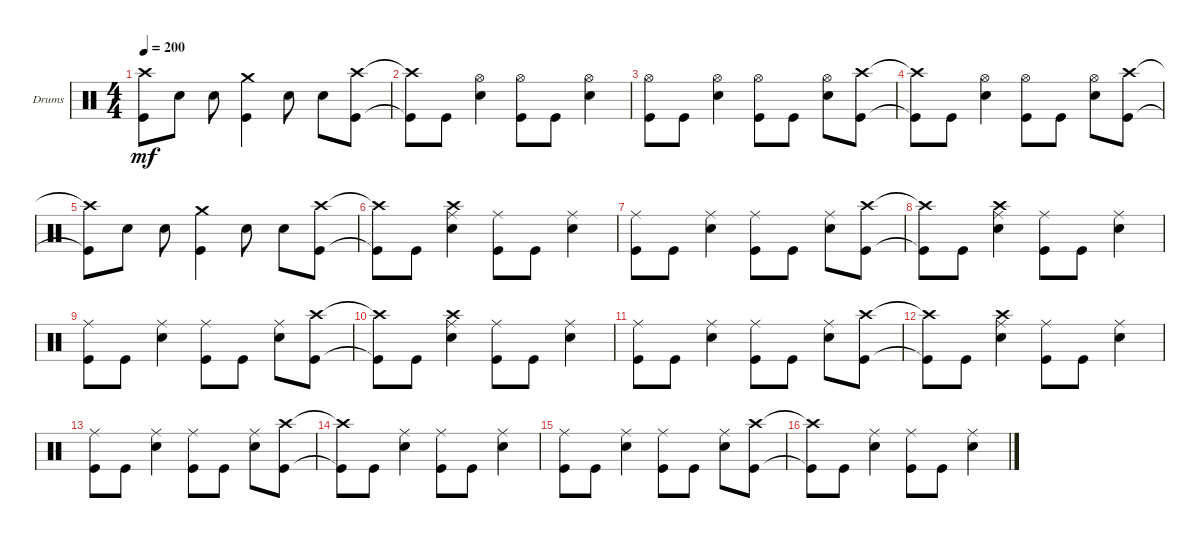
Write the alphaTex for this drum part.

\bracketExtendMode groupsimilarinstruments
\firstSystemTrackNameOrientation horizontal
\otherSystemsTrackNameOrientation horizontal
\track ("Drums" "Drums") {instrument percussion}
\staff {score}
\articulation defaults
\ts (4 4)
\tempo 200
\clef neutral
\ks c
("Kick (hit)"{t} "Crash high (hit)"{t}).8{dy mf} "Snare (hit) 2".8 "Snare (hit) 2".8 ("Kick (hit)" "Crash medium (hit)").4 "Snare (hit) 2".8 "Snare (hit) 2".8 ("Kick (hit)" "Crash high (hit)").8 |
("Kick (hit)"{t} "Crash high (hit)"{t}).8 "Kick (hit)".8 ("Snare (hit) 2" "Hi-Hat (open)").4 ("Kick (hit)" "Hi-Hat (open)").8 "Kick (hit)".8 ("Snare (hit) 2" "Hi-Hat (open)").4 |
("Kick (hit)" "Hi-Hat (open)").8 "Kick (hit)".8 ("Snare (hit) 2" "Hi-Hat (open)").4 ("Kick (hit)" "Hi-Hat (open)").8 "Kick (hit)".8 ("Snare (hit) 2" "Hi-Hat (open)").8 ("Kick (hit)" "Crash high (hit)").8 |
("Kick (hit)"{t} "Crash high (hit)"{t}).8 "Kick (hit)".8 ("Snare (hit) 2" "Hi-Hat (open)").4 ("Kick (hit)" "Hi-Hat (open)").8 "Kick (hit)".8 ("Snare (hit) 2" "Hi-Hat (open)").8 ("Kick (hit)" "Crash high (hit)").8 |
("Kick (hit)"{t} "Crash high (hit)"{t}).8 "Snare (hit) 2".8 "Snare (hit) 2".8 ("Kick (hit)" "Crash medium (hit)").4 "Snare (hit) 2".8 "Snare (hit) 2".8 ("Kick (hit)" "Crash high (hit)").8 |
("Kick (hit)"{t} "Crash high (hit)"{t}).8 "Kick (hit)".8 ("Snare (hit) 2" "Ride (middle)" "Crash high (hit)").4 ("Kick (hit)" "Ride (middle)").8 "Kick (hit)".8 ("Snare (hit) 2" "Ride (middle)").4 |
("Kick (hit)" "Ride (middle)").8 "Kick (hit)".8 ("Snare (hit) 2" "Ride (middle)").4 ("Kick (hit)" "Ride (middle)").8 "Kick (hit)".8 ("Snare (hit) 2" "Ride (middle)").8 ("Kick (hit)" "Crash high (hit)").8 |
("Kick (hit)"{t} "Crash high (hit)"{t}).8 "Kick (hit)".8 ("Snare (hit) 2" "Ride (middle)" "Crash high (hit)").4 ("Kick (hit)" "Ride (middle)").8 "Kick (hit)".8 ("Snare (hit) 2" "Ride (middle)").4 |
("Kick (hit)" "Ride (middle)").8 "Kick (hit)".8 ("Snare (hit) 2" "Ride (middle)").4 ("Kick (hit)" "Ride (middle)").8 "Kick (hit)".8 ("Snare (hit) 2" "Ride (middle)").8 ("Kick (hit)" "Crash high (hit)").8 |
("Kick (hit)"{t} "Crash high (hit)"{t}).8 "Kick (hit)".8 ("Snare (hit) 2" "Ride (middle)" "Crash high (hit)").4 ("Kick (hit)" "Ride (middle)").8 "Kick (hit)".8 ("Snare (hit) 2" "Ride (middle)").4 |
("Kick (hit)" "Ride (middle)").8 "Kick (hit)".8 ("Snare (hit) 2" "Ride (middle)").4 ("Kick (hit)" "Ride (middle)").8 "Kick (hit)".8 ("Snare (hit) 2" "Ride (middle)").8 ("Kick (hit)" "Crash high (hit)").8 |
("Kick (hit)"{t} "Crash high (hit)"{t}).8 "Kick (hit)".8 ("Snare (hit) 2" "Ride (middle)" "Crash high (hit)").4 ("Kick (hit)" "Ride (middle)").8 "Kick (hit)".8 ("Snare (hit) 2" "Ride (middle)").4 |
("Kick (hit)" "Ride (middle)").8 "Kick (hit)".8 ("Snare (hit) 2" "Ride (middle)").4 ("Kick (hit)" "Ride (middle)").8 "Kick (hit)".8 ("Snare (hit) 2" "Ride (middle)").8 ("Kick (hit)" "Crash high (hit)").8 |
("Kick (hit)"{t} "Crash high (hit)"{t}).8 "Kick (hit)".8 ("Snare (hit) 2" "Ride (middle)").4 ("Kick (hit)" "Ride (middle)").8 "Kick (hit)".8 ("Snare (hit) 2" "Ride (middle)").4 |
("Kick (hit)" "Ride (middle)").8 "Kick (hit)".8 ("Snare (hit) 2" "Ride (middle)").4 ("Kick (hit)" "Ride (middle)").8 "Kick (hit)".8 ("Snare (hit) 2" "Ride (middle)").8 ("Kick (hit)" "Crash high (hit)").8 |
("Kick (hit)"{t} "Crash high (hit)"{t}).8 "Kick (hit)".8 ("Snare (hit) 2" "Ride (middle)").4 ("Kick (hit)" "Ride (middle)").8 "Kick (hit)".8 ("Snare (hit) 2" "Ride (middle)").4
